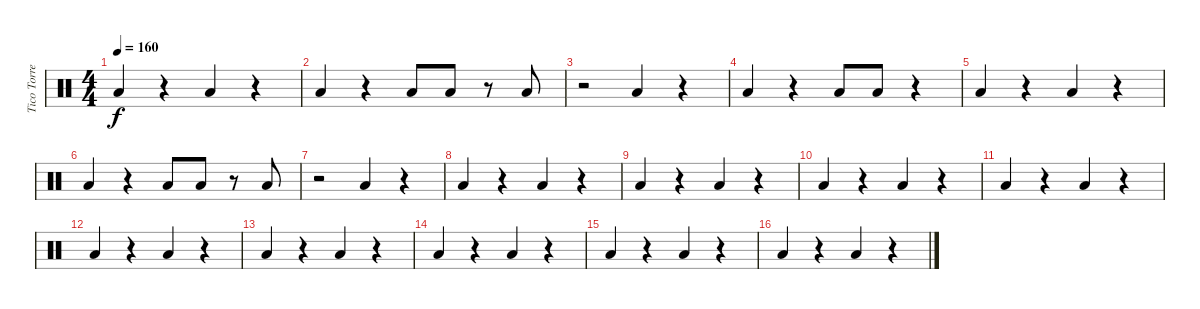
\track ("Tico Torres" "Tico Torre") {instrument percussion}
\staff {score}
\articulation defaults
\ts (4 4)
\tempo 160
\clef neutral
\ks c "Low Floor Tom (hit)".4{dy f}
r.4 "Low Floor Tom (hit)".4 r.4 |
"Low Floor Tom (hit)".4 r.4 "Low Floor Tom (hit)".8 "Low Floor Tom (hit)".8 r.8 "Low Floor Tom (hit)".8 |
r.2 "Low Floor Tom (hit)".4 r.4 |
"Low Floor Tom (hit)".4 r.4 "Low Floor Tom (hit)".8 "Low Floor Tom (hit)".8 r.4 |
"Low Floor Tom (hit)".4 r.4 "Low Floor Tom (hit)".4 r.4 |
"Low Floor Tom (hit)".4 r.4 "Low Floor Tom (hit)".8 "Low Floor Tom (hit)".8 r.8 "Low Floor Tom (hit)".8 |
r.2 "Low Floor Tom (hit)".4 r.4 |
"Low Floor Tom (hit)".4 r.4 "Low Floor Tom (hit)".4 r.4 |
"Low Floor Tom (hit)".4 r.4 "Low Floor Tom (hit)".4 r.4 |
"Low Floor Tom (hit)".4 r.4 "Low Floor Tom (hit)".4 r.4 |
"Low Floor Tom (hit)".4 r.4 "Low Floor Tom (hit)".4 r.4 |
"Low Floor Tom (hit)".4 r.4 "Low Floor Tom (hit)".4 r.4 |
"Low Floor Tom (hit)".4 r.4 "Low Floor Tom (hit)".4 r.4 |
"Low Floor Tom (hit)".4 r.4 "Low Floor Tom (hit)".4 r.4 |
"Low Floor Tom (hit)".4 r.4 "Low Floor Tom (hit)".4 r.4 |
"Low Floor Tom (hit)".4 r.4 "Low Floor Tom (hit)".4 r.4
